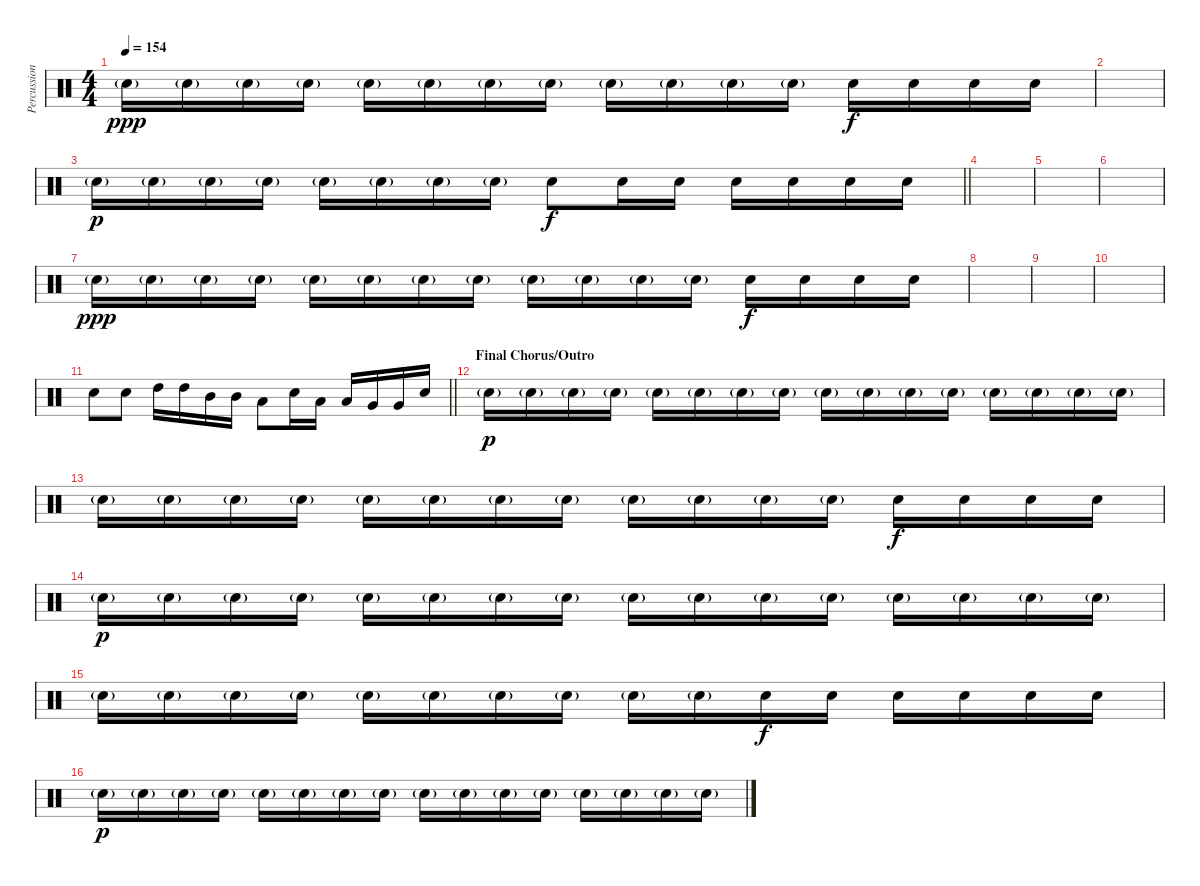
\track ("Percussion" "Percussion") {instrument percussion}
\staff {score}
\articulation defaults
\ts (4 4)
\tempo 154
\clef neutral
\ks c "Snare (hit) 2"{g}.16{dy ppp} "Snare (hit) 2"{g}.16 "Snare (hit) 2"{g}.16 "Snare (hit) 2"{g}.16 "Snare (hit) 2"{g}.16 "Snare (hit) 2"{g}.16 "Snare (hit) 2"{g}.16 "Snare (hit) 2"{g}.16 "Snare (hit) 2"{g}.16 "Snare (hit) 2"{g}.16 "Snare (hit) 2"{g}.16 "Snare (hit) 2"{g}.16 "Snare (hit) 2".16{dy f} "Snare (hit) 2".16 "Snare (hit) 2".16 "Snare (hit) 2".16
|
|
\barLineRight lightlight "Snare (hit) 2"{g}.16{dy p} "Snare (hit) 2"{g}.16 "Snare (hit) 2"{g}.16 "Snare (hit) 2"{g}.16 "Snare (hit) 2"{g}.16 "Snare (hit) 2"{g}.16 "Snare (hit) 2"{g}.16 "Snare (hit) 2"{g}.16 "Snare (hit) 2".8{dy f} "Snare (hit) 2".16 "Snare (hit) 2".16 "Snare (hit) 2".16 "Snare (hit) 2".16 "Snare (hit) 2".16 "Snare (hit) 2".16
|
|
|
|
"Snare (hit) 2"{g}.16{dy ppp} "Snare (hit) 2"{g}.16 "Snare (hit) 2"{g}.16 "Snare (hit) 2"{g}.16 "Snare (hit) 2"{g}.16 "Snare (hit) 2"{g}.16 "Snare (hit) 2"{g}.16 "Snare (hit) 2"{g}.16 "Snare (hit) 2"{g}.16 "Snare (hit) 2"{g}.16 "Snare (hit) 2"{g}.16 "Snare (hit) 2"{g}.16 "Snare (hit) 2".16{dy f} "Snare (hit) 2".16 "Snare (hit) 2".16 "Snare (hit) 2".16 |
|
|
|
\barLineRight lightlight "Snare (hit) 2".8 "Snare (hit) 2".8 "High Tom (hit)".16 "High Tom (hit)".16 "Mid Tom (hit)".16 "Mid Tom (hit)".16 "Low Tom (hit)".8 "Snare (hit) 2".16 "Low Tom (hit)".16 "Low Tom (hit)".16 "Very Low Tom (hit)".16 "Very Low Tom (hit)".16 "Snare (hit) 2".16
|
\section ("" "Final Chorus/Outro")
"Snare (hit) 2"{g}.16{dy p} "Snare (hit) 2"{g}.16 "Snare (hit) 2"{g}.16 "Snare (hit) 2"{g}.16 "Snare (hit) 2"{g}.16 "Snare (hit) 2"{g}.16 "Snare (hit) 2"{g}.16 "Snare (hit) 2"{g}.16 "Snare (hit) 2"{g}.16 "Snare (hit) 2"{g}.16 "Snare (hit) 2"{g}.16 "Snare (hit) 2"{g}.16 "Snare (hit) 2"{g}.16 "Snare (hit) 2"{g}.16 "Snare (hit) 2"{g}.16 "Snare (hit) 2"{g}.16 |
"Snare (hit) 2"{g}.16 "Snare (hit) 2"{g}.16 "Snare (hit) 2"{g}.16 "Snare (hit) 2"{g}.16 "Snare (hit) 2"{g}.16 "Snare (hit) 2"{g}.16 "Snare (hit) 2"{g}.16 "Snare (hit) 2"{g}.16 "Snare (hit) 2"{g}.16 "Snare (hit) 2"{g}.16 "Snare (hit) 2"{g}.16 "Snare (hit) 2"{g}.16 "Snare (hit) 2".16{dy f} "Snare (hit) 2".16 "Snare (hit) 2".16 "Snare (hit) 2".16 |
"Snare (hit) 2"{g}.16{dy p} "Snare (hit) 2"{g}.16 "Snare (hit) 2"{g}.16 "Snare (hit) 2"{g}.16 "Snare (hit) 2"{g}.16 "Snare (hit) 2"{g}.16 "Snare (hit) 2"{g}.16 "Snare (hit) 2"{g}.16 "Snare (hit) 2"{g}.16 "Snare (hit) 2"{g}.16 "Snare (hit) 2"{g}.16 "Snare (hit) 2"{g}.16 "Snare (hit) 2"{g}.16 "Snare (hit) 2"{g}.16 "Snare (hit) 2"{g}.16 "Snare (hit) 2"{g}.16 |
"Snare (hit) 2"{g}.16 "Snare (hit) 2"{g}.16 "Snare (hit) 2"{g}.16 "Snare (hit) 2"{g}.16 "Snare (hit) 2"{g}.16 "Snare (hit) 2"{g}.16 "Snare (hit) 2"{g}.16 "Snare (hit) 2"{g}.16 "Snare (hit) 2"{g}.16 "Snare (hit) 2"{g}.16 "Snare (hit) 2".16{dy f} "Snare (hit) 2".16 "Snare (hit) 2".16 "Snare (hit) 2".16 "Snare (hit) 2".16 "Snare (hit) 2".16 |
"Snare (hit) 2"{g}.16{dy p} "Snare (hit) 2"{g}.16 "Snare (hit) 2"{g}.16 "Snare (hit) 2"{g}.16 "Snare (hit) 2"{g}.16 "Snare (hit) 2"{g}.16 "Snare (hit) 2"{g}.16 "Snare (hit) 2"{g}.16 "Snare (hit) 2"{g}.16 "Snare (hit) 2"{g}.16 "Snare (hit) 2"{g}.16 "Snare (hit) 2"{g}.16 "Snare (hit) 2"{g}.16 "Snare (hit) 2"{g}.16 "Snare (hit) 2"{g}.16 "Snare (hit) 2"{g}.16
